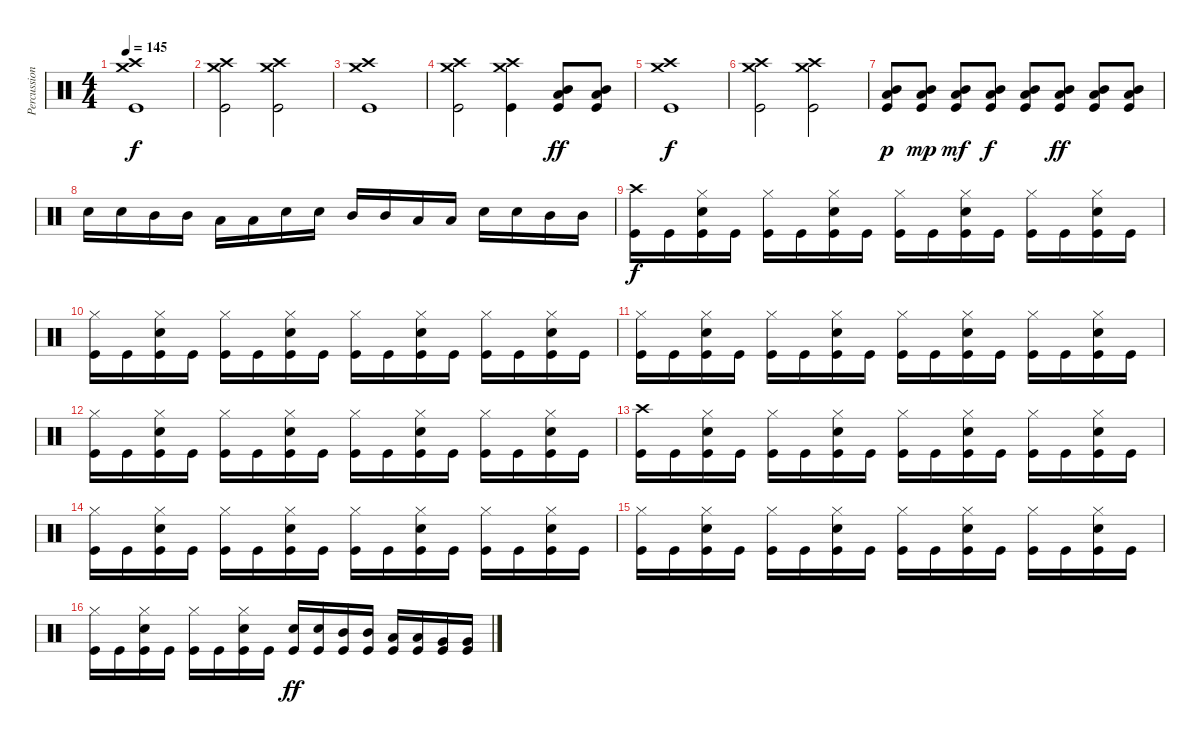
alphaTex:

\track ("Percussions" "Percussion") {instrument percussion}
\staff {score}
\articulation defaults
\ts (4 4)
\tempo 145
\clef neutral
\ks c
("Crash high (hit)" "Crash medium (hit)" "Kick (hit)").1{dy f} |
("Crash medium (hit)" "Crash high (hit)" "Kick (hit)").2 ("Crash medium (hit)" "Crash high (hit)" "Kick (hit)").2 |
("Crash medium (hit)" "Crash high (hit)" "Kick (hit)").1 |
("Crash medium (hit)" "Crash high (hit)" "Kick (hit)").2 ("Crash medium (hit)" "Crash high (hit)" "Kick (hit)").4 ("Mid Tom (hit)" "Low Floor Tom (hit)" "Kick (hit)").8{dy ff} ("Mid Tom (hit)" "Low Floor Tom (hit)" "Kick (hit)").8 |
("Crash high (hit)" "Crash medium (hit)" "Kick (hit)").1{dy f} |
("Crash medium (hit)" "Crash high (hit)" "Kick (hit)").2 ("Crash medium (hit)" "Crash high (hit)" "Kick (hit)").2 |
("Mid Tom (hit)" "Low Floor Tom (hit)" "Kick (hit)").8{dy p} ("Mid Tom (hit)" "Low Floor Tom (hit)" "Kick (hit)").8{dy mp} ("Mid Tom (hit)" "Low Floor Tom (hit)" "Kick (hit)").8{dy mf} ("Mid Tom (hit)" "Low Floor Tom (hit)" "Kick (hit)").8{dy f} ("Mid Tom (hit)" "Low Floor Tom (hit)" "Kick (hit)").8 ("Mid Tom (hit)" "Low Floor Tom (hit)" "Kick (hit)").8{dy ff} ("Mid Tom (hit)" "Low Floor Tom (hit)" "Kick (hit)").8 ("Mid Tom (hit)" "Low Floor Tom (hit)" "Kick (hit)").8 |
"Snare (hit) 2".16 "Snare (hit) 2".16 "Mid Tom (hit)".16 "Mid Tom (hit)".16 "Low Tom (hit)".16 "Low Tom (hit)".16 "Snare (hit) 2".16 "Snare (hit) 2".16 "Mid Tom (hit)".16 "Mid Tom (hit)".16 "Low Tom (hit)".16 "Low Tom (hit)".16 "Snare (hit) 2".16 "Snare (hit) 2".16 "Mid Tom (hit)".16 "Mid Tom (hit)".16 |
("Crash high (hit)" "Kick (hit)").16{dy f} "Kick (hit)".16 ("Hi-Hat (closed)" "Snare (hit) 2" "Kick (hit)").16 "Kick (hit)".16 ("Hi-Hat (closed)" "Kick (hit)").16 "Kick (hit)".16 ("Hi-Hat (closed)" "Snare (hit) 2" "Kick (hit)").16 "Kick (hit)".16 ("Hi-Hat (closed)" "Kick (hit)").16 "Kick (hit)".16 ("Hi-Hat (closed)" "Snare (hit) 2" "Kick (hit)").16 "Kick (hit)".16 ("Hi-Hat (closed)" "Kick (hit)").16 "Kick (hit)".16 ("Hi-Hat (closed)" "Snare (hit) 2" "Kick (hit)").16 "Kick (hit)".16 |
("Hi-Hat (closed)" "Kick (hit)").16 "Kick (hit)".16 ("Hi-Hat (closed)" "Snare (hit) 2" "Kick (hit)").16 "Kick (hit)".16 ("Hi-Hat (closed)" "Kick (hit)").16 "Kick (hit)".16 ("Hi-Hat (closed)" "Snare (hit) 2" "Kick (hit)").16 "Kick (hit)".16 ("Hi-Hat (closed)" "Kick (hit)").16 "Kick (hit)".16 ("Hi-Hat (closed)" "Snare (hit) 2" "Kick (hit)").16 "Kick (hit)".16 ("Hi-Hat (closed)" "Kick (hit)").16 "Kick (hit)".16 ("Hi-Hat (closed)" "Snare (hit) 2" "Kick (hit)").16 "Kick (hit)".16 |
("Hi-Hat (closed)" "Kick (hit)").16 "Kick (hit)".16 ("Hi-Hat (closed)" "Snare (hit) 2" "Kick (hit)").16 "Kick (hit)".16 ("Hi-Hat (closed)" "Kick (hit)").16 "Kick (hit)".16 ("Hi-Hat (closed)" "Snare (hit) 2" "Kick (hit)").16 "Kick (hit)".16 ("Hi-Hat (closed)" "Kick (hit)").16 "Kick (hit)".16 ("Hi-Hat (closed)" "Snare (hit) 2" "Kick (hit)").16 "Kick (hit)".16 ("Hi-Hat (closed)" "Kick (hit)").16 "Kick (hit)".16 ("Hi-Hat (closed)" "Snare (hit) 2" "Kick (hit)").16 "Kick (hit)".16 |
("Hi-Hat (closed)" "Kick (hit)").16 "Kick (hit)".16 ("Hi-Hat (closed)" "Snare (hit) 2" "Kick (hit)").16 "Kick (hit)".16 ("Hi-Hat (closed)" "Kick (hit)").16 "Kick (hit)".16 ("Hi-Hat (closed)" "Snare (hit) 2" "Kick (hit)").16 "Kick (hit)".16 ("Hi-Hat (closed)" "Kick (hit)").16 "Kick (hit)".16 ("Hi-Hat (closed)" "Snare (hit) 2" "Kick (hit)").16 "Kick (hit)".16 ("Hi-Hat (closed)" "Kick (hit)").16 "Kick (hit)".16 ("Hi-Hat (closed)" "Snare (hit) 2" "Kick (hit)").16 "Kick (hit)".16 |
("Crash high (hit)" "Kick (hit)").16 "Kick (hit)".16 ("Hi-Hat (closed)" "Snare (hit) 2" "Kick (hit)").16 "Kick (hit)".16 ("Hi-Hat (closed)" "Kick (hit)").16 "Kick (hit)".16 ("Hi-Hat (closed)" "Snare (hit) 2" "Kick (hit)").16 "Kick (hit)".16 ("Hi-Hat (closed)" "Kick (hit)").16 "Kick (hit)".16 ("Hi-Hat (closed)" "Snare (hit) 2" "Kick (hit)").16 "Kick (hit)".16 ("Hi-Hat (closed)" "Kick (hit)").16 "Kick (hit)".16 ("Hi-Hat (closed)" "Snare (hit) 2" "Kick (hit)").16 "Kick (hit)".16 |
("Hi-Hat (closed)" "Kick (hit)").16 "Kick (hit)".16 ("Hi-Hat (closed)" "Snare (hit) 2" "Kick (hit)").16 "Kick (hit)".16 ("Hi-Hat (closed)" "Kick (hit)").16 "Kick (hit)".16 ("Hi-Hat (closed)" "Snare (hit) 2" "Kick (hit)").16 "Kick (hit)".16 ("Hi-Hat (closed)" "Kick (hit)").16 "Kick (hit)".16 ("Hi-Hat (closed)" "Snare (hit) 2" "Kick (hit)").16 "Kick (hit)".16 ("Hi-Hat (closed)" "Kick (hit)").16 "Kick (hit)".16 ("Hi-Hat (closed)" "Snare (hit) 2" "Kick (hit)").16 "Kick (hit)".16 |
("Hi-Hat (closed)" "Kick (hit)").16 "Kick (hit)".16 ("Hi-Hat (closed)" "Snare (hit) 2" "Kick (hit)").16 "Kick (hit)".16 ("Hi-Hat (closed)" "Kick (hit)").16 "Kick (hit)".16 ("Hi-Hat (closed)" "Snare (hit) 2" "Kick (hit)").16 "Kick (hit)".16 ("Hi-Hat (closed)" "Kick (hit)").16 "Kick (hit)".16 ("Hi-Hat (closed)" "Snare (hit) 2" "Kick (hit)").16 "Kick (hit)".16 ("Hi-Hat (closed)" "Kick (hit)").16 "Kick (hit)".16 ("Hi-Hat (closed)" "Snare (hit) 2" "Kick (hit)").16 "Kick (hit)".16 |
("Hi-Hat (closed)" "Kick (hit)").16 "Kick (hit)".16 ("Hi-Hat (closed)" "Snare (hit) 2" "Kick (hit)").16 "Kick (hit)".16 ("Hi-Hat (closed)" "Kick (hit)").16 "Kick (hit)".16 ("Hi-Hat (closed)" "Snare (hit) 2" "Kick (hit)").16 "Kick (hit)".16 ("Snare (hit) 2" "Kick (hit)").16{dy ff} ("Snare (hit) 2" "Kick (hit)").16 ("Mid Tom (hit)" "Kick (hit)").16 ("Mid Tom (hit)" "Kick (hit)").16 ("Low Tom (hit)" "Kick (hit)").16 ("Low Tom (hit)" "Kick (hit)").16 ("Very Low Tom (hit)" "Kick (hit)").16 ("Very Low Tom (hit)" "Kick (hit)").16
